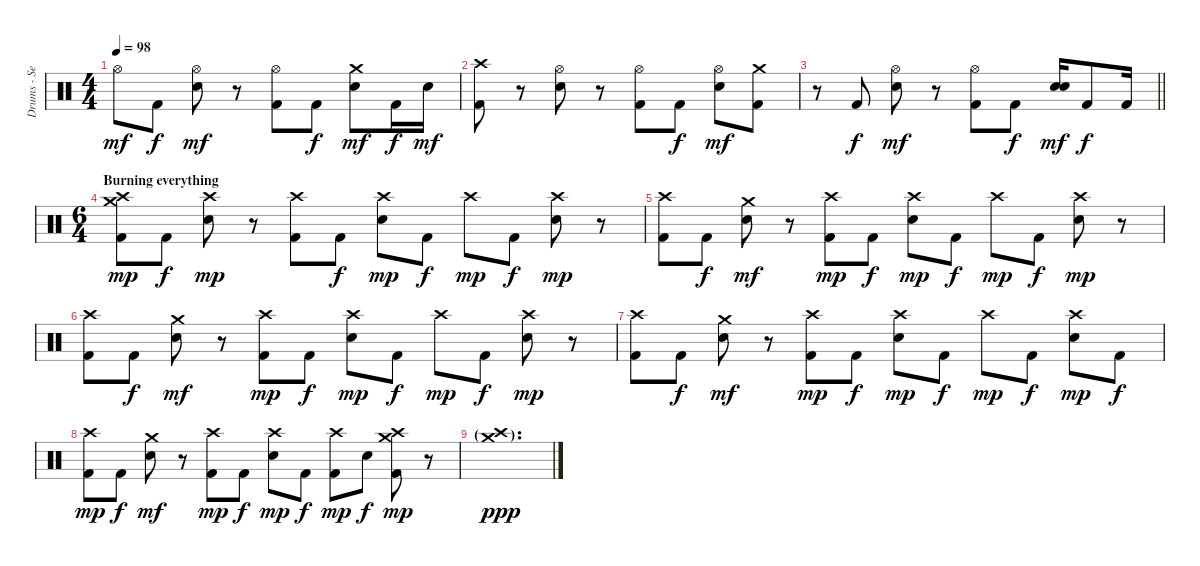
\track ("Drums - Sean Kinney" "Drums - Se") {instrument percussion}
\staff {score}
\articulation defaults
\ts (4 4)
\tempo 98
\clef neutral
\ks c "Hi-Hat (open)".8{dy mf} "Kick (hit) 2".8{dy f}
("Hi-Hat (open)" "Snare (hit) 2").8{dy mf} r.8 ("Hi-Hat (open)" "Kick (hit) 2").8 "Kick (hit) 2".8{dy f} ("Crash medium (hit)" "Snare (hit) 2").8{dy mf} "Kick (hit) 2".16{dy f} "Snare (hit) 2".16{dy mf} |
("Crash high (hit)" "Kick (hit) 2").8 r.8 ("Hi-Hat (open)" "Snare (hit) 2").8 r.8 ("Hi-Hat (open)" "Kick (hit) 2").8 "Kick (hit) 2".8{dy f} ("Hi-Hat (open)" "Snare (hit) 2").8{dy mf} ("Crash medium (hit)" "Kick (hit) 2").8 |
\barLineRight lightlight
r.8 "Kick (hit) 2".8{dy f} ("Hi-Hat (open)" "Snare (hit) 2").8{dy mf} r.8 ("Hi-Hat (open)" "Kick (hit) 2").8 "Kick (hit) 2".8{dy f} ("Electric Snare (hit)" "Snare (hit) 2").16{dy mf} "Kick (hit) 2".8{dy f} "Kick (hit) 2".16 |
\ts (6 4)
\section ("" "Burning everything")
("Crash medium (hit)" "Crash high (hit)" "Kick (hit) 2").8{dy mp} "Kick (hit) 2".8{dy f} ("Crash high (hit)" "Snare (hit) 2").8{dy mp} r.8 ("Crash high (hit)" "Kick (hit) 2").8 "Kick (hit) 2".8{dy f} ("Crash high (hit)" "Snare (hit) 2").8{dy mp} "Kick (hit) 2".8{dy f} "Crash high (hit)".8{dy mp} "Kick (hit) 2".8{dy f} ("Crash high (hit)" "Snare (hit) 2").8{dy mp} r.8 |
("Crash high (hit)" "Kick (hit) 2").8 "Kick (hit) 2".8{dy f} ("Crash medium (hit)" "Snare (hit) 2").8{dy mf} r.8 ("Crash high (hit)" "Kick (hit) 2").8{dy mp} "Kick (hit) 2".8{dy f} ("Crash high (hit)" "Snare (hit) 2").8{dy mp} "Kick (hit) 2".8{dy f} "Crash high (hit)".8{dy mp} "Kick (hit) 2".8{dy f} ("Crash high (hit)" "Snare (hit) 2").8{dy mp} r.8 |
("Crash high (hit)" "Kick (hit) 2").8 "Kick (hit) 2".8{dy f} ("Crash medium (hit)" "Snare (hit) 2").8{dy mf} r.8 ("Crash high (hit)" "Kick (hit) 2").8{dy mp} "Kick (hit) 2".8{dy f} ("Crash high (hit)" "Snare (hit) 2").8{dy mp} "Kick (hit) 2".8{dy f} "Crash high (hit)".8{dy mp} "Kick (hit) 2".8{dy f} ("Crash high (hit)" "Snare (hit) 2").8{dy mp} r.8 |
("Crash high (hit)" "Kick (hit) 2").8 "Kick (hit) 2".8{dy f} ("Crash medium (hit)" "Snare (hit) 2").8{dy mf} r.8 ("Crash high (hit)" "Kick (hit) 2").8{dy mp} "Kick (hit) 2".8{dy f} ("Crash high (hit)" "Snare (hit) 2").8{dy mp} "Kick (hit) 2".8{dy f} "Crash high (hit)".8{dy mp} "Kick (hit) 2".8{dy f} ("Crash high (hit)" "Snare (hit) 2").8{dy mp} "Kick (hit) 2".8{dy f} |
("Crash high (hit)" "Kick (hit) 2").8{dy mp} "Kick (hit) 2".8{dy f} ("Crash medium (hit)" "Snare (hit) 2").8{dy mf} r.8 ("Crash high (hit)" "Kick (hit) 2").8{dy mp} "Kick (hit) 2".8{dy f} ("Crash high (hit)" "Snare (hit) 2").8{dy mp} "Kick (hit) 2".8{dy f} ("Crash high (hit)" "Kick (hit) 2").8{dy mp} "Snare (hit) 2".8{dy f} ("Crash medium (hit)" "Crash high (hit)" "Kick (hit) 2").8{dy mp} r.8 |
("Crash medium (hit)"{g} "Crash high (hit)"{g}).1{d dy ppp}
